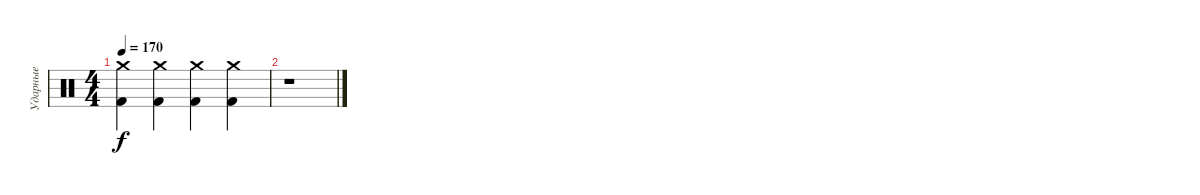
\track ("Ударные" "Ударные") {instrument percussion}
\staff {score}
\articulation defaults
\ts (4 4)
\tempo 170
\clef neutral
\ks c
("Crash medium (hit)" "Kick (hit) 2").4{dy f} ("Crash medium (hit)" "Kick (hit) 2").4 ("Crash medium (hit)" "Kick (hit) 2").4 ("Crash medium (hit)" "Kick (hit) 2").4 |
r.1
